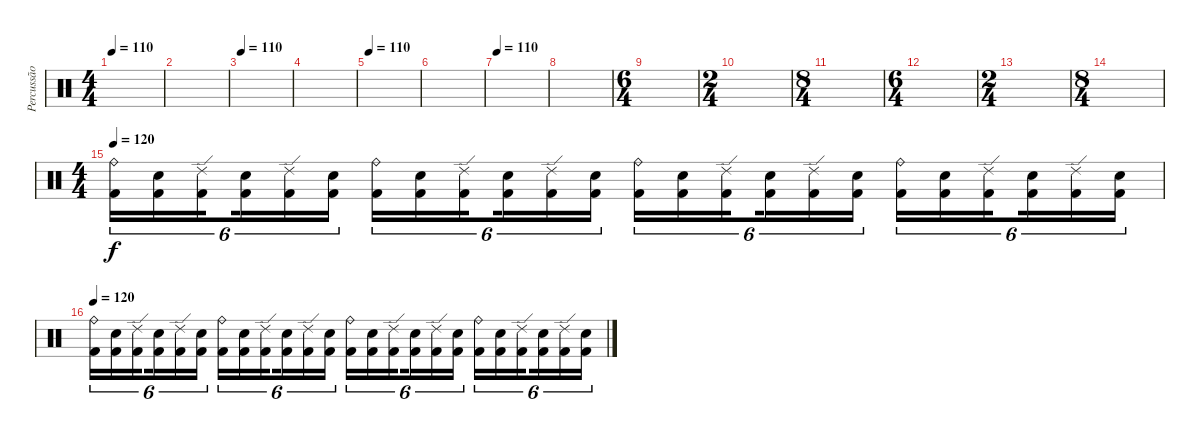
\track ("Percussão" "Percussão") {instrument percussion}
\staff {score}
\articulation defaults
\ts (4 4)
\tempo 110
\clef neutral
\ks c
|
|
\tempo 110
|
|
\tempo 110
|
|
\tempo 110
|
|
\ts (6 4)
|
\ts (2 4)
|
\ts (8 4)
|
\ts (6 4)
|
\ts (2 4)
|
\ts (8 4)
|
\ts (4 4)
\tempo 120
("Ride (bell)" "Kick (hit) 2").16{tu (6 4)} ("Electric Snare (hit)" "Kick (hit) 2").16{tu (6 4)} ("Ride (edge) 2" "Kick (hit) 2").16{tu (6 4) beam splitsecondary} ("Electric Snare (hit)" "Kick (hit) 2").16{tu (6 4)} ("Ride (edge) 2" "Kick (hit) 2").16{tu (6 4)} ("Electric Snare (hit)" "Kick (hit) 2").16{tu (6 4)} ("Ride (bell)" "Kick (hit) 2").16{tu (6 4)} ("Electric Snare (hit)" "Kick (hit) 2").16{tu (6 4)} ("Ride (edge) 2" "Kick (hit) 2").16{tu (6 4) beam splitsecondary} ("Electric Snare (hit)" "Kick (hit) 2").16{tu (6 4)} ("Ride (edge) 2" "Kick (hit) 2").16{tu (6 4)} ("Electric Snare (hit)" "Kick (hit) 2").16{tu (6 4)} ("Ride (bell)" "Kick (hit) 2").16{tu (6 4)} ("Electric Snare (hit)" "Kick (hit) 2").16{tu (6 4)} ("Ride (edge) 2" "Kick (hit) 2").16{tu (6 4) beam splitsecondary} ("Electric Snare (hit)" "Kick (hit) 2").16{tu (6 4)} ("Ride (edge) 2" "Kick (hit) 2").16{tu (6 4)} ("Electric Snare (hit)" "Kick (hit) 2").16{tu (6 4)} ("Ride (bell)" "Kick (hit) 2").16{tu (6 4)} ("Electric Snare (hit)" "Kick (hit) 2").16{tu (6 4)} ("Ride (edge) 2" "Kick (hit) 2").16{tu (6 4) beam splitsecondary} ("Electric Snare (hit)" "Kick (hit) 2").16{tu (6 4)} ("Ride (edge) 2" "Kick (hit) 2").16{tu (6 4)} ("Electric Snare (hit)" "Kick (hit) 2").16{tu (6 4)} |
\tempo 120
("Ride (bell)" "Kick (hit) 2").16{tu (6 4)} ("Electric Snare (hit)" "Kick (hit) 2").16{tu (6 4)} ("Ride (edge) 2" "Kick (hit) 2").16{tu (6 4) beam splitsecondary} ("Electric Snare (hit)" "Kick (hit) 2").16{tu (6 4)} ("Ride (edge) 2" "Kick (hit) 2").16{tu (6 4)} ("Electric Snare (hit)" "Kick (hit) 2").16{tu (6 4)} ("Ride (bell)" "Kick (hit) 2").16{tu (6 4)} ("Electric Snare (hit)" "Kick (hit) 2").16{tu (6 4)} ("Ride (edge) 2" "Kick (hit) 2").16{tu (6 4) beam splitsecondary} ("Electric Snare (hit)" "Kick (hit) 2").16{tu (6 4)} ("Ride (edge) 2" "Kick (hit) 2").16{tu (6 4)} ("Electric Snare (hit)" "Kick (hit) 2").16{tu (6 4)} ("Ride (bell)" "Kick (hit) 2").16{tu (6 4)} ("Electric Snare (hit)" "Kick (hit) 2").16{tu (6 4)} ("Ride (edge) 2" "Kick (hit) 2").16{tu (6 4) beam splitsecondary} ("Electric Snare (hit)" "Kick (hit) 2").16{tu (6 4)} ("Ride (edge) 2" "Kick (hit) 2").16{tu (6 4)} ("Electric Snare (hit)" "Kick (hit) 2").16{tu (6 4)} ("Ride (bell)" "Kick (hit) 2").16{tu (6 4)} ("Electric Snare (hit)" "Kick (hit) 2").16{tu (6 4)} ("Ride (edge) 2" "Kick (hit) 2").16{tu (6 4) beam splitsecondary} ("Electric Snare (hit)" "Kick (hit) 2").16{tu (6 4)} ("Ride (edge) 2" "Kick (hit) 2").16{tu (6 4)} ("Electric Snare (hit)" "Kick (hit) 2").16{tu (6 4)}
